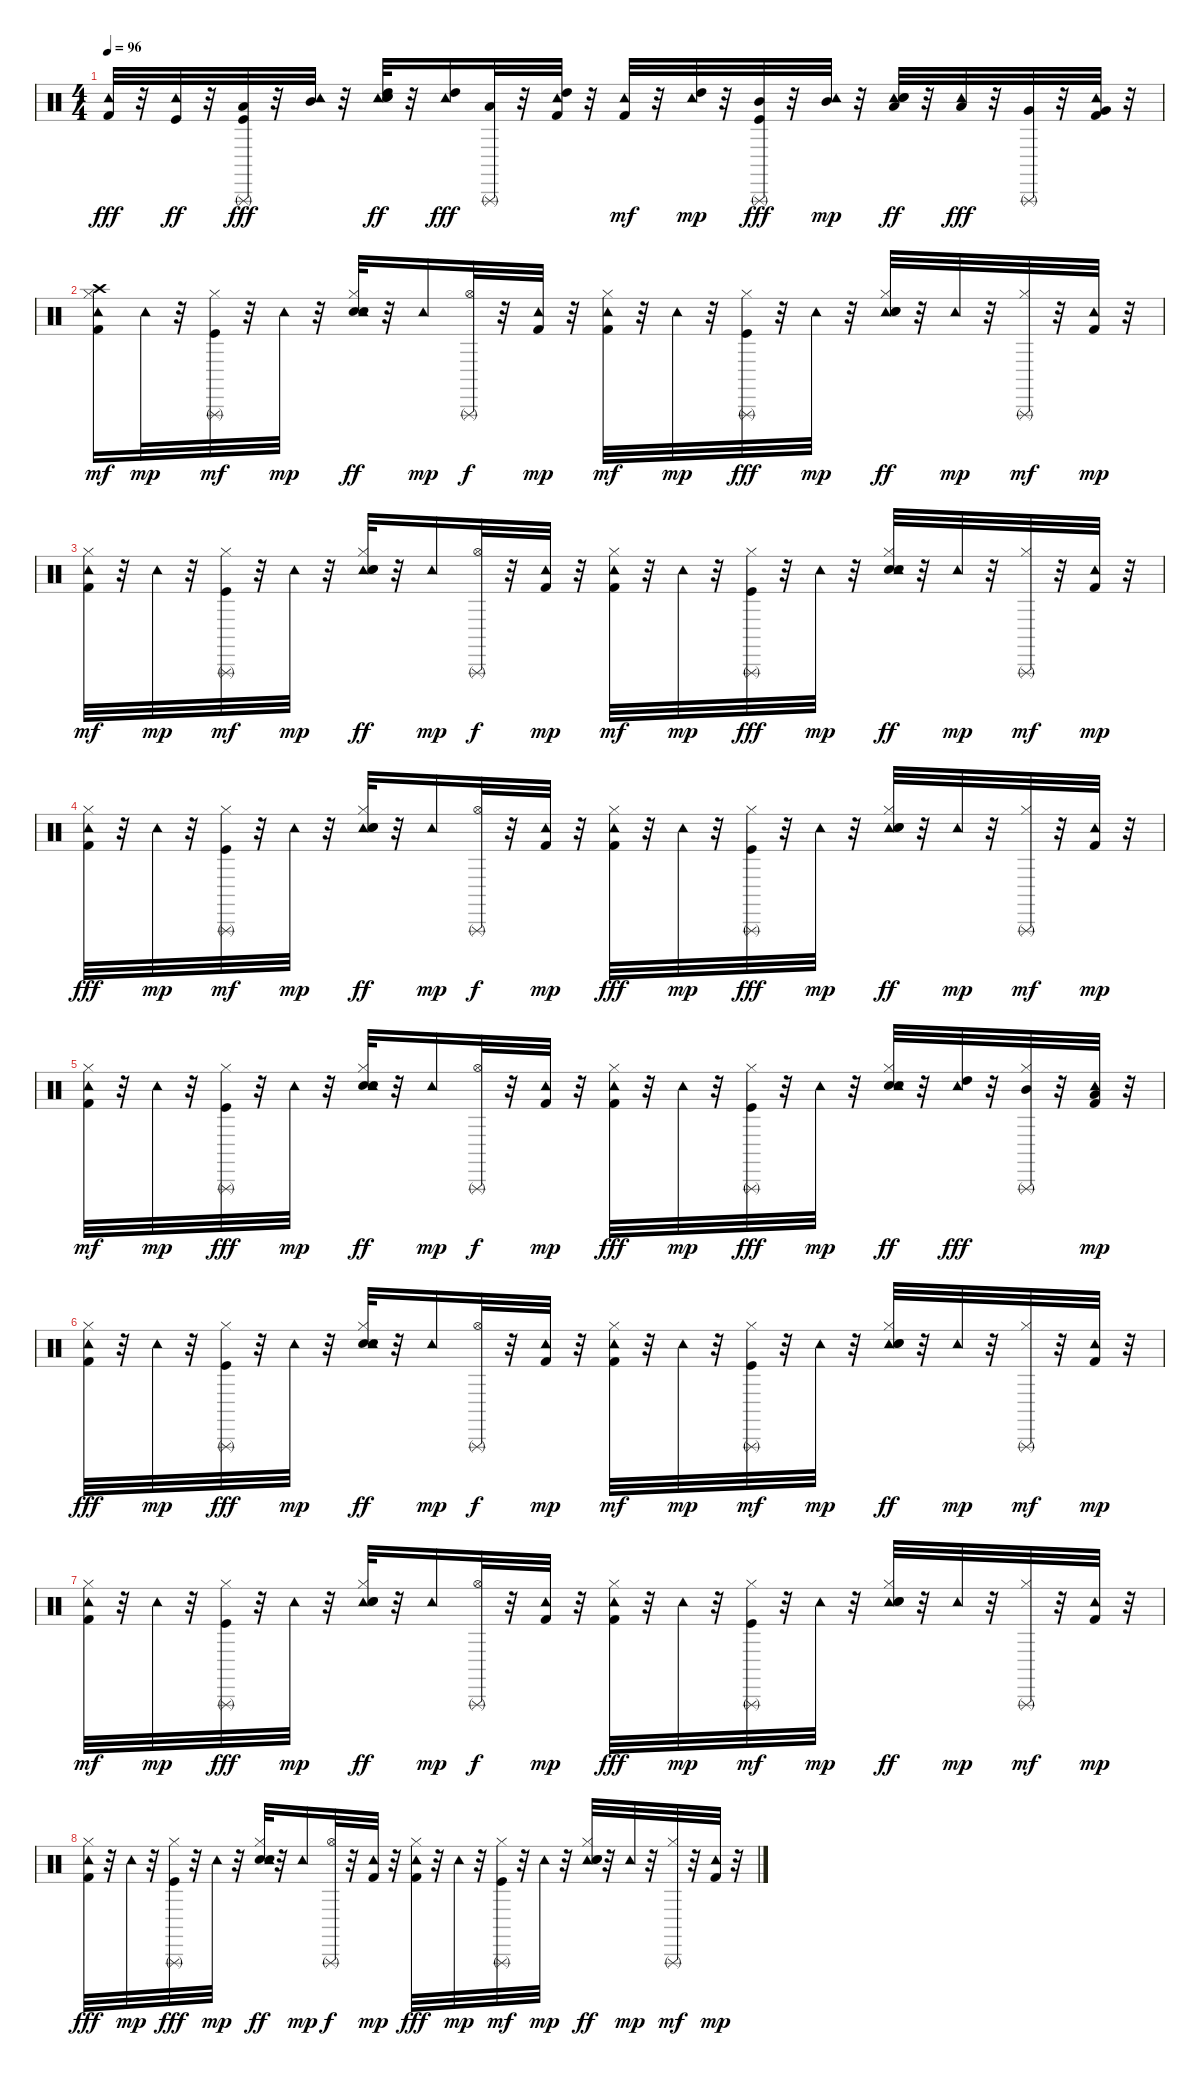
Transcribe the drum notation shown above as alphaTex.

\track "" {instrument percussion}
\staff {score}
\articulation defaults
\ts (4 4)
\tempo 96
\clef neutral
\ks c
("Tambourine (hit)" "Kick (hit) 2").32{dy fff} r.32 ("Tambourine (hit)" "Kick (hit)").32{dy ff} r.32 ("Triangle (rnute)" "Low Tom (hit)" "Kick (hit)").32{dy fff} r.32 ("Tambourine (hit)" "Mid Tom (hit)").32 r.32 ("Tambourine (hit)" "Electric Snare (hit)" "High Tom (hit)" "Hand Clap (hit)").32{dy ff} r.32 ("Tambourine (hit)" "High Tom (hit)").16{dy fff} ("Triangle (rnute)" "Low Tom (hit)").32 r.32 ("Tambourine (hit)" "Kick (hit) 2" "High Tom (hit)").32 r.32 ("Kick (hit) 2" "Tambourine (hit)").32{dy mf} r.32 ("High Tom (hit)" "Tambourine (hit)").32{dy mp} r.32 ("Kick (hit)" "Mid Tom (hit)" "Triangle (rnute)").32{dy fff} r.32 ("Mid Tom (hit)" "Tambourine (hit)").32{dy mp} r.32 ("Tambourine (hit)" "Electric Snare (hit)" "Low Tom (hit)" "Hand Clap (hit)").32{dy ff} r.32 ("Tambourine (hit)" "Low Tom (hit)").32{dy fff} r.32 ("Triangle (rnute)" "Very Low Tom (hit)").32 r.32 ("Tambourine (hit)" "Kick (hit) 2" "Very Low Tom (hit)").32 r.32 |
("Kick (hit) 2" "Crash high (hit)" "Tambourine (hit)" "Hi-Hat (closed)").16{dy mf} "Tambourine (hit)".32{dy mp} r.32 ("Kick (hit)" "Triangle (rnute)" "Hi-Hat (closed)").32{dy mf} r.32 "Tambourine (hit)".32{dy mp} r.32 ("Hi-Hat (closed)" "Snare (hit) 2" "Tambourine (hit)" "Hand Clap (hit)").32{dy ff} r.32 "Tambourine (hit)".16{dy mp} ("Triangle (rnute)" "Hi-Hat (open)").32{dy f} r.32 ("Kick (hit) 2" "Tambourine (hit)").32{dy mp} r.32 ("Kick (hit) 2" "Hi-Hat (closed)" "Tambourine (hit)").32{dy mf} r.32 "Tambourine (hit)".32{dy mp} r.32 ("Hi-Hat (closed)" "Triangle (rnute)" "Kick (hit)").32{dy fff} r.32 "Tambourine (hit)".32{dy mp} r.32 ("Hi-Hat (closed)" "Tambourine (hit)" "Snare (hit) 2" "Hand Clap (hit)").32{dy ff} r.32 "Tambourine (hit)".32{dy mp} r.32 ("Triangle (rnute)" "Hi-Hat (closed)").32{dy mf} r.32 ("Kick (hit) 2" "Tambourine (hit)").32{dy mp} r.32 |
("Kick (hit) 2" "Hi-Hat (closed)" "Tambourine (hit)").32{dy mf} r.32 "Tambourine (hit)".32{dy mp} r.32 ("Kick (hit)" "Hi-Hat (closed)" "Triangle (rnute)").32{dy mf} r.32 "Tambourine (hit)".32{dy mp} r.32 ("Tambourine (hit)" "Hi-Hat (closed)" "Snare (hit) 2" "Hand Clap (hit)").32{dy ff} r.32 "Tambourine (hit)".16{dy mp} ("Triangle (rnute)" "Hi-Hat (open)").32{dy f} r.32 ("Kick (hit) 2" "Tambourine (hit)").32{dy mp} r.32 ("Hi-Hat (closed)" "Kick (hit) 2" "Tambourine (hit)").32{dy mf} r.32 "Tambourine (hit)".32{dy mp} r.32 ("Triangle (rnute)" "Hi-Hat (closed)" "Kick (hit)").32{dy fff} r.32 "Tambourine (hit)".32{dy mp} r.32 ("Snare (hit) 2" "Tambourine (hit)" "Hi-Hat (closed)" "Hand Clap (hit)").32{dy ff} r.32 "Tambourine (hit)".32{dy mp} r.32 ("Hi-Hat (closed)" "Triangle (rnute)").32{dy mf} r.32 ("Tambourine (hit)" "Kick (hit) 2").32{dy mp} r.32 |
("Hi-Hat (closed)" "Tambourine (hit)" "Kick (hit) 2").32{dy fff} r.32 "Tambourine (hit)".32{dy mp} r.32 ("Kick (hit)" "Hi-Hat (closed)" "Triangle (rnute)").32{dy mf} r.32 "Tambourine (hit)".32{dy mp} r.32 ("Tambourine (hit)" "Hi-Hat (closed)" "Snare (hit) 2" "Hand Clap (hit)").32{dy ff} r.32 "Tambourine (hit)".16{dy mp} ("Hi-Hat (open)" "Triangle (rnute)").32{dy f} r.32 ("Tambourine (hit)" "Kick (hit) 2").32{dy mp} r.32 ("Hi-Hat (closed)" "Tambourine (hit)" "Kick (hit) 2").32{dy fff} r.32 "Tambourine (hit)".32{dy mp} r.32 ("Hi-Hat (closed)" "Triangle (rnute)" "Kick (hit)").32{dy fff} r.32 "Tambourine (hit)".32{dy mp} r.32 ("Tambourine (hit)" "Snare (hit) 2" "Hi-Hat (closed)" "Hand Clap (hit)").32{dy ff} r.32 "Tambourine (hit)".32{dy mp} r.32 ("Hi-Hat (closed)" "Triangle (rnute)").32{dy mf} r.32 ("Tambourine (hit)" "Kick (hit) 2").32{dy mp} r.32 |
("Kick (hit) 2" "Tambourine (hit)" "Hi-Hat (closed)").32{dy mf} r.32 "Tambourine (hit)".32{dy mp} r.32 ("Triangle (rnute)" "Hi-Hat (closed)" "Kick (hit)").32{dy fff} r.32 "Tambourine (hit)".32{dy mp} r.32 ("Snare (hit) 2" "Hi-Hat (closed)" "Tambourine (hit)" "Hand Clap (hit)").32{dy ff} r.32 "Tambourine (hit)".16{dy mp} ("Triangle (rnute)" "Hi-Hat (open)").32{dy f} r.32 ("Tambourine (hit)" "Kick (hit) 2").32{dy mp} r.32 ("Tambourine (hit)" "Hi-Hat (closed)" "Kick (hit) 2").32{dy fff} r.32 "Tambourine (hit)".32{dy mp} r.32 ("Hi-Hat (closed)" "Kick (hit)" "Triangle (rnute)").32{dy fff} r.32 "Tambourine (hit)".32{dy mp} r.32 ("Snare (hit) 2" "Tambourine (hit)" "Hi-Hat (closed)" "Hand Clap (hit)").32{dy ff} r.32 ("Tambourine (hit)" "High Tom (hit)").32{dy fff} r.32 ("Hi-Hat (closed)" "Mid Tom (hit)" "Triangle (rnute)").32 r.32 ("Kick (hit) 2" "Low Tom (hit)" "Tambourine (hit)").32{dy mp} r.32 |
("Hi-Hat (closed)" "Tambourine (hit)" "Kick (hit) 2").32{dy fff} r.32 "Tambourine (hit)".32{dy mp} r.32 ("Hi-Hat (closed)" "Triangle (rnute)" "Kick (hit)").32{dy fff} r.32 "Tambourine (hit)".32{dy mp} r.32 ("Snare (hit) 2" "Hi-Hat (closed)" "Tambourine (hit)" "Hand Clap (hit)").32{dy ff} r.32 "Tambourine (hit)".16{dy mp} ("Hi-Hat (open)" "Triangle (rnute)").32{dy f} r.32 ("Kick (hit) 2" "Tambourine (hit)").32{dy mp} r.32 ("Kick (hit) 2" "Hi-Hat (closed)" "Tambourine (hit)").32{dy mf} r.32 "Tambourine (hit)".32{dy mp} r.32 ("Kick (hit)" "Hi-Hat (closed)" "Triangle (rnute)").32{dy mf} r.32 "Tambourine (hit)".32{dy mp} r.32 ("Hi-Hat (closed)" "Tambourine (hit)" "Snare (hit) 2" "Hand Clap (hit)").32{dy ff} r.32 "Tambourine (hit)".32{dy mp} r.32 ("Hi-Hat (closed)" "Triangle (rnute)").32{dy mf} r.32 ("Kick (hit) 2" "Tambourine (hit)").32{dy mp} r.32 |
("Hi-Hat (closed)" "Kick (hit) 2" "Tambourine (hit)").32{dy mf} r.32 "Tambourine (hit)".32{dy mp} r.32 ("Hi-Hat (closed)" "Kick (hit)" "Triangle (rnute)").32{dy fff} r.32 "Tambourine (hit)".32{dy mp} r.32 ("Hi-Hat (closed)" "Tambourine (hit)" "Snare (hit) 2" "Hand Clap (hit)").32{dy ff} r.32 "Tambourine (hit)".16{dy mp} ("Hi-Hat (open)" "Triangle (rnute)").32{dy f} r.32 ("Kick (hit) 2" "Tambourine (hit)").32{dy mp} r.32 ("Tambourine (hit)" "Hi-Hat (closed)" "Kick (hit) 2").32{dy fff} r.32 "Tambourine (hit)".32{dy mp} r.32 ("Kick (hit)" "Triangle (rnute)" "Hi-Hat (closed)").32{dy mf} r.32 "Tambourine (hit)".32{dy mp} r.32 ("Tambourine (hit)" "Snare (hit) 2" "Hi-Hat (closed)" "Hand Clap (hit)").32{dy ff} r.32 "Tambourine (hit)".32{dy mp} r.32 ("Hi-Hat (closed)" "Triangle (rnute)").32{dy mf} r.32 ("Kick (hit) 2" "Tambourine (hit)").32{dy mp} r.32 |
("Hi-Hat (closed)" "Tambourine (hit)" "Kick (hit) 2").32{dy fff} r.32 "Tambourine (hit)".32{dy mp} r.32 ("Hi-Hat (closed)" "Triangle (rnute)" "Kick (hit)").32{dy fff} r.32 "Tambourine (hit)".32{dy mp} r.32 ("Snare (hit) 2" "Tambourine (hit)" "Hi-Hat (closed)" "Hand Clap (hit)").32{dy ff} r.32 "Tambourine (hit)".16{dy mp} ("Triangle (rnute)" "Hi-Hat (open)").32{dy f} r.32 ("Kick (hit) 2" "Tambourine (hit)").32{dy mp} r.32 ("Tambourine (hit)" "Kick (hit) 2" "Hi-Hat (closed)").32{dy fff} r.32 "Tambourine (hit)".32{dy mp} r.32 ("Kick (hit)" "Triangle (rnute)" "Hi-Hat (closed)").32{dy mf} r.32 "Tambourine (hit)".32{dy mp} r.32 ("Tambourine (hit)" "Hi-Hat (closed)" "Snare (hit) 2" "Hand Clap (hit)").32{dy ff} r.32 "Tambourine (hit)".32{dy mp} r.32 ("Triangle (rnute)" "Hi-Hat (closed)").32{dy mf} r.32 ("Kick (hit) 2" "Tambourine (hit)").32{dy mp} r.32
